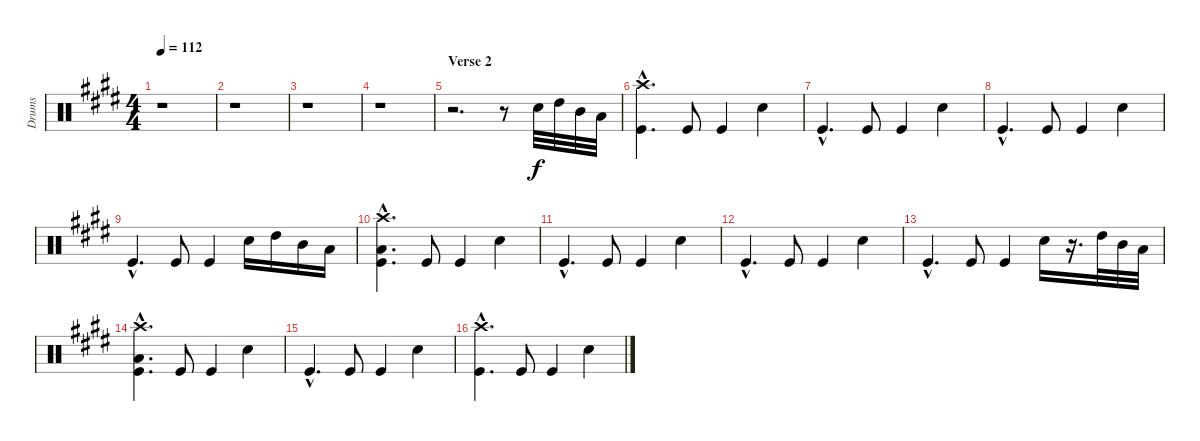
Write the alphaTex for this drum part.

\track ("Drums" "Drums") {instrument percussion}
\staff {score}
\articulation defaults
\ts (4 4)
\tempo 112
\clef neutral
\ks e
r.1{dy f} |
r.1 |
r.1 |
r.1 |
\section ("" "Verse 2")
r.2{d} r.8 "Snare (hit) 2".32 "High Tom (hit)".32 "Mid Tom (hit)".32 "Low Tom (hit)".32 |
("Crash high (hit)"{hac} "Kick (hit)"{hac}).4{d} "Kick (hit)".8 "Kick (hit)".4 "Snare (hit) 2".4 |
"Kick (hit)"{hac}.4{d} "Kick (hit)".8 "Kick (hit)".4 "Snare (hit) 2".4 |
"Kick (hit)"{hac}.4{d} "Kick (hit)".8 "Kick (hit)".4 "Snare (hit) 2".4 |
"Kick (hit)"{hac}.4{d} "Kick (hit)".8 "Kick (hit)".4 "Snare (hit) 2".16 "High Tom (hit)".16 "Mid Tom (hit)".16 "Low Tom (hit)".16 |
("Crash high (hit)"{hac} "Low Floor Tom (hit)"{hac} "Kick (hit)"{hac}).4{d} "Kick (hit)".8 "Kick (hit)".4 "Snare (hit) 2".4 |
"Kick (hit)"{hac}.4{d} "Kick (hit)".8 "Kick (hit)".4 "Snare (hit) 2".4 |
"Kick (hit)"{hac}.4{d} "Kick (hit)".8 "Kick (hit)".4 "Snare (hit) 2".4 |
"Kick (hit)"{hac}.4{d} "Kick (hit)".8 "Kick (hit)".4 "Snare (hit) 2".16 r.16{d} "High Tom (hit)".32 "Mid Tom (hit)".32 "Low Tom (hit)".32 |
("Crash high (hit)"{hac} "Low Floor Tom (hit)"{hac} "Kick (hit)"{hac}).4{d} "Kick (hit)".8 "Kick (hit)".4 "Snare (hit) 2".4 |
"Kick (hit)"{hac}.4{d} "Kick (hit)".8 "Kick (hit)".4 "Snare (hit) 2".4 |
("Crash high (hit)"{hac} "Kick (hit)"{hac}).4{d} "Kick (hit)".8 "Kick (hit)".4 "Snare (hit) 2".4
